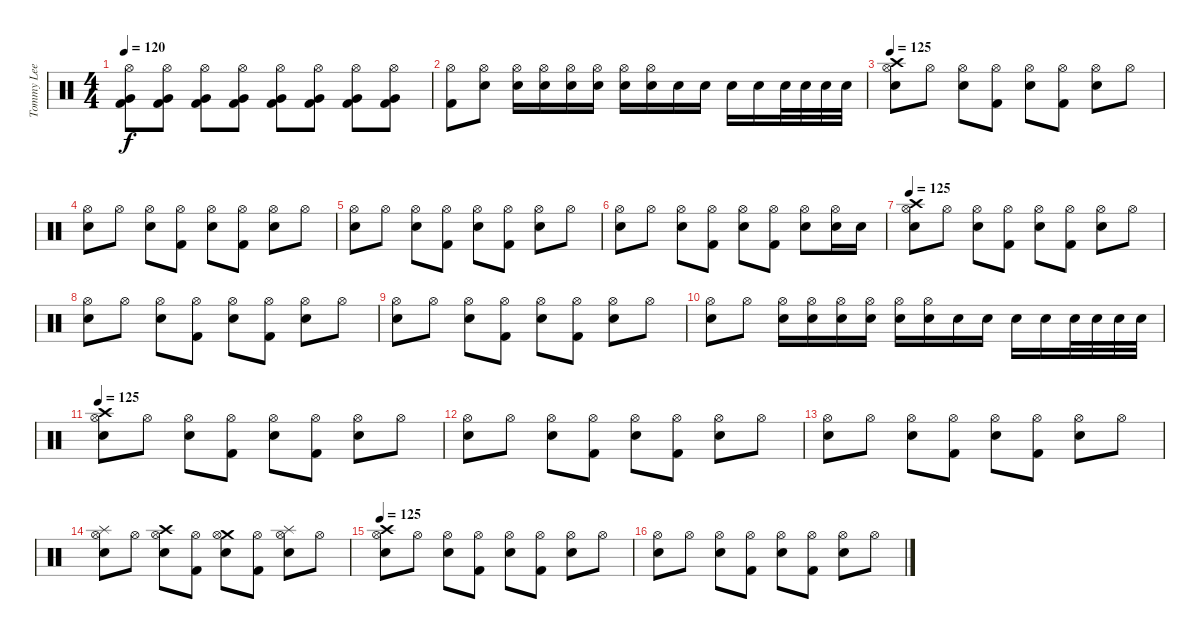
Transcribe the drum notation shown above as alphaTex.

\track ("Tommy Lee" "Tommy Lee") {instrument percussion}
\staff {score}
\articulation defaults
\ts (4 4)
\tempo 120
\clef neutral
\ks c
("Hi-Hat (open)" "Kick (hit) 2" "Very Low Tom (hit)").8{dy f} ("Hi-Hat (open)" "Kick (hit) 2" "Very Low Tom (hit)").8 ("Hi-Hat (open)" "Kick (hit) 2" "Very Low Tom (hit)").8 ("Hi-Hat (open)" "Kick (hit) 2" "Very Low Tom (hit)").8 ("Hi-Hat (open)" "Kick (hit) 2" "Very Low Tom (hit)").8 ("Hi-Hat (open)" "Kick (hit) 2" "Very Low Tom (hit)").8 ("Hi-Hat (open)" "Kick (hit) 2" "Very Low Tom (hit)").8 ("Hi-Hat (open)" "Kick (hit) 2" "Very Low Tom (hit)").8 |
("Hi-Hat (open)" "Kick (hit) 2").8 ("Hi-Hat (open)" "Electric Snare (hit)").8 ("Hi-Hat (open)" "Electric Snare (hit)").16 ("Hi-Hat (open)" "Electric Snare (hit)").16 ("Hi-Hat (open)" "Electric Snare (hit)").16 ("Hi-Hat (open)" "Electric Snare (hit)").16 ("Hi-Hat (open)" "Electric Snare (hit)").16 ("Hi-Hat (open)" "Electric Snare (hit)").16 "Electric Snare (hit)".16 "Electric Snare (hit)".16 "Electric Snare (hit)".16 "Electric Snare (hit)".16 "Electric Snare (hit)".32 "Electric Snare (hit)".32 "Electric Snare (hit)".32 "Electric Snare (hit)".32 |
\tempo 125
("Crash high (hit)" "Hi-Hat (open)" "Snare (hit) 2").8 "Hi-Hat (open)".8 ("Hi-Hat (open)" "Snare (hit) 2").8 ("Hi-Hat (open)" "Kick (hit) 2").8 ("Hi-Hat (open)" "Snare (hit) 2").8 ("Hi-Hat (open)" "Kick (hit) 2").8 ("Hi-Hat (open)" "Snare (hit) 2").8 "Hi-Hat (open)".8 |
("Hi-Hat (open)" "Snare (hit) 2").8 "Hi-Hat (open)".8 ("Hi-Hat (open)" "Snare (hit) 2").8 ("Hi-Hat (open)" "Kick (hit) 2").8 ("Hi-Hat (open)" "Snare (hit) 2").8 ("Hi-Hat (open)" "Kick (hit) 2").8 ("Hi-Hat (open)" "Snare (hit) 2").8 "Hi-Hat (open)".8 |
("Hi-Hat (open)" "Snare (hit) 2").8 "Hi-Hat (open)".8 ("Hi-Hat (open)" "Snare (hit) 2").8 ("Hi-Hat (open)" "Kick (hit) 2").8 ("Hi-Hat (open)" "Snare (hit) 2").8 ("Hi-Hat (open)" "Kick (hit) 2").8 ("Hi-Hat (open)" "Snare (hit) 2").8 "Hi-Hat (open)".8 |
("Hi-Hat (open)" "Snare (hit) 2").8 "Hi-Hat (open)".8 ("Hi-Hat (open)" "Snare (hit) 2").8 ("Hi-Hat (open)" "Kick (hit) 2").8 ("Hi-Hat (open)" "Snare (hit) 2").8 ("Hi-Hat (open)" "Kick (hit) 2").8 ("Hi-Hat (open)" "Snare (hit) 2").8 ("Hi-Hat (open)" "Snare (hit) 2").16 "Snare (hit) 2".16 |
\tempo 125
("Crash high (hit)" "Hi-Hat (open)" "Snare (hit) 2").8 "Hi-Hat (open)".8 ("Hi-Hat (open)" "Snare (hit) 2").8 ("Hi-Hat (open)" "Kick (hit) 2").8 ("Hi-Hat (open)" "Snare (hit) 2").8 ("Hi-Hat (open)" "Kick (hit) 2").8 ("Hi-Hat (open)" "Snare (hit) 2").8 "Hi-Hat (open)".8 |
("Hi-Hat (open)" "Snare (hit) 2").8 "Hi-Hat (open)".8 ("Hi-Hat (open)" "Snare (hit) 2").8 ("Hi-Hat (open)" "Kick (hit) 2").8 ("Hi-Hat (open)" "Snare (hit) 2").8 ("Hi-Hat (open)" "Kick (hit) 2").8 ("Hi-Hat (open)" "Snare (hit) 2").8 "Hi-Hat (open)".8 |
("Hi-Hat (open)" "Snare (hit) 2").8 "Hi-Hat (open)".8 ("Hi-Hat (open)" "Snare (hit) 2").8 ("Hi-Hat (open)" "Kick (hit) 2").8 ("Hi-Hat (open)" "Snare (hit) 2").8 ("Hi-Hat (open)" "Kick (hit) 2").8 ("Hi-Hat (open)" "Snare (hit) 2").8 "Hi-Hat (open)".8 |
("Hi-Hat (open)" "Snare (hit) 2").8 "Hi-Hat (open)".8 ("Hi-Hat (open)" "Snare (hit) 2").16 ("Hi-Hat (open)" "Snare (hit) 2").16 ("Hi-Hat (open)" "Snare (hit) 2").16 ("Hi-Hat (open)" "Snare (hit) 2").16 ("Hi-Hat (open)" "Snare (hit) 2").16 ("Hi-Hat (open)" "Snare (hit) 2").16 "Snare (hit) 2".16 "Snare (hit) 2".16 "Snare (hit) 2".16 "Snare (hit) 2".16 "Snare (hit) 2".32 "Snare (hit) 2".32 "Snare (hit) 2".32 "Snare (hit) 2".32 |
\tempo 125
("Crash high (hit)" "Hi-Hat (open)" "Snare (hit) 2").8 "Hi-Hat (open)".8 ("Hi-Hat (open)" "Snare (hit) 2").8 ("Hi-Hat (open)" "Kick (hit) 2").8 ("Hi-Hat (open)" "Snare (hit) 2").8 ("Hi-Hat (open)" "Kick (hit) 2").8 ("Hi-Hat (open)" "Snare (hit) 2").8 "Hi-Hat (open)".8 |
("Hi-Hat (open)" "Snare (hit) 2").8 "Hi-Hat (open)".8 ("Hi-Hat (open)" "Snare (hit) 2").8 ("Hi-Hat (open)" "Kick (hit) 2").8 ("Hi-Hat (open)" "Snare (hit) 2").8 ("Hi-Hat (open)" "Kick (hit) 2").8 ("Hi-Hat (open)" "Snare (hit) 2").8 "Hi-Hat (open)".8 |
("Hi-Hat (open)" "Snare (hit) 2").8 "Hi-Hat (open)".8 ("Hi-Hat (open)" "Snare (hit) 2").8 ("Hi-Hat (open)" "Kick (hit) 2").8 ("Hi-Hat (open)" "Snare (hit) 2").8 ("Hi-Hat (open)" "Kick (hit) 2").8 ("Hi-Hat (open)" "Snare (hit) 2").8 "Hi-Hat (open)".8 |
("Splash (hit)" "Hi-Hat (open)" "Snare (hit) 2").8 "Hi-Hat (open)".8 ("Crash high (hit)" "Hi-Hat (open)" "Snare (hit) 2").8 ("Hi-Hat (open)" "Kick (hit) 2").8 ("Crash medium (hit)" "Hi-Hat (open)" "Snare (hit) 2").8 ("Hi-Hat (open)" "Kick (hit) 2").8 ("Splash (hit)" "Hi-Hat (open)" "Snare (hit) 2").8 "Hi-Hat (open)".8 |
\tempo 125
("Crash high (hit)" "Hi-Hat (open)" "Snare (hit) 2").8 "Hi-Hat (open)".8 ("Hi-Hat (open)" "Snare (hit) 2").8 ("Hi-Hat (open)" "Kick (hit) 2").8 ("Hi-Hat (open)" "Snare (hit) 2").8 ("Hi-Hat (open)" "Kick (hit) 2").8 ("Hi-Hat (open)" "Snare (hit) 2").8 "Hi-Hat (open)".8 |
("Hi-Hat (open)" "Snare (hit) 2").8 "Hi-Hat (open)".8 ("Hi-Hat (open)" "Snare (hit) 2").8 ("Hi-Hat (open)" "Kick (hit) 2").8 ("Hi-Hat (open)" "Snare (hit) 2").8 ("Hi-Hat (open)" "Kick (hit) 2").8 ("Hi-Hat (open)" "Snare (hit) 2").8 "Hi-Hat (open)".8
